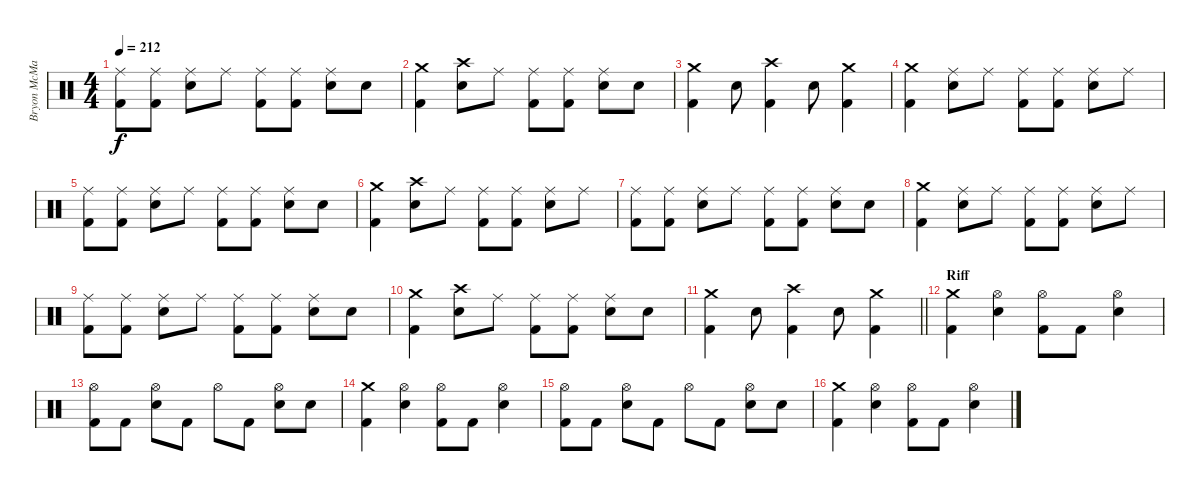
\track ("Bryon McMackin - Drums" "Bryon McMa") {instrument percussion}
\staff {score}
\articulation defaults
\ts (4 4)
\tempo 212
\clef neutral
\ks c
("Ride (middle)" "Kick (hit) 2").8{dy f} ("Ride (middle)" "Kick (hit) 2").8 ("Ride (middle)" "Electric Snare (hit)").8 "Ride (middle)".8 ("Ride (middle)" "Kick (hit) 2").8 ("Ride (middle)" "Kick (hit) 2").8 ("Ride (middle)" "Electric Snare (hit)").8 "Electric Snare (hit)".8 |
("Crash medium (hit)" "Kick (hit) 2").4 ("Crash high (hit)" "Electric Snare (hit)").8 "Ride (middle)".8 ("Ride (middle)" "Kick (hit) 2").8 ("Ride (middle)" "Kick (hit) 2").8 ("Ride (middle)" "Electric Snare (hit)").8 "Electric Snare (hit)".8 |
("Crash medium (hit)" "Kick (hit) 2").4 "Electric Snare (hit)".8 ("Crash high (hit)" "Kick (hit) 2").4 "Electric Snare (hit)".8 ("Crash medium (hit)" "Kick (hit) 2").4 |
("Crash medium (hit)" "Kick (hit) 2").4 ("Ride (middle)" "Electric Snare (hit)").8 "Ride (middle)".8 ("Ride (middle)" "Kick (hit) 2").8 ("Ride (middle)" "Kick (hit) 2").8 ("Ride (middle)" "Electric Snare (hit)").8 "Ride (middle)".8 |
("Ride (middle)" "Kick (hit) 2").8 ("Ride (middle)" "Kick (hit) 2").8 ("Ride (middle)" "Electric Snare (hit)").8 "Ride (middle)".8 ("Ride (middle)" "Kick (hit) 2").8 ("Ride (middle)" "Kick (hit) 2").8 ("Ride (middle)" "Electric Snare (hit)").8 "Electric Snare (hit)".8 |
("Crash medium (hit)" "Kick (hit) 2").4 ("Crash high (hit)" "Electric Snare (hit)").8 "Ride (middle)".8 ("Ride (middle)" "Kick (hit) 2").8 ("Ride (middle)" "Kick (hit) 2").8 ("Ride (middle)" "Electric Snare (hit)").8 "Ride (middle)".8 |
("Ride (middle)" "Kick (hit) 2").8 ("Ride (middle)" "Kick (hit) 2").8 ("Ride (middle)" "Electric Snare (hit)").8 "Ride (middle)".8 ("Ride (middle)" "Kick (hit) 2").8 ("Ride (middle)" "Kick (hit) 2").8 ("Ride (middle)" "Electric Snare (hit)").8 "Electric Snare (hit)".8 |
("Crash medium (hit)" "Kick (hit) 2").4 ("Ride (middle)" "Electric Snare (hit)").8 "Ride (middle)".8 ("Ride (middle)" "Kick (hit) 2").8 ("Ride (middle)" "Kick (hit) 2").8 ("Ride (middle)" "Electric Snare (hit)").8 "Ride (middle)".8 |
("Ride (middle)" "Kick (hit) 2").8 ("Ride (middle)" "Kick (hit) 2").8 ("Ride (middle)" "Electric Snare (hit)").8 "Ride (middle)".8 ("Ride (middle)" "Kick (hit) 2").8 ("Ride (middle)" "Kick (hit) 2").8 ("Ride (middle)" "Electric Snare (hit)").8 "Electric Snare (hit)".8 |
("Crash medium (hit)" "Kick (hit) 2").4 ("Crash high (hit)" "Electric Snare (hit)").8 "Ride (middle)".8 ("Ride (middle)" "Kick (hit) 2").8 ("Ride (middle)" "Kick (hit) 2").8 ("Ride (middle)" "Electric Snare (hit)").8 "Electric Snare (hit)".8 |
\barLineRight lightlight
("Crash medium (hit)" "Kick (hit) 2").4 "Electric Snare (hit)".8 ("Crash high (hit)" "Kick (hit) 2").4 "Electric Snare (hit)".8 ("Crash medium (hit)" "Kick (hit) 2").4 |
\section ("" "Riff")
("Crash medium (hit)" "Kick (hit) 2").4 ("Hi-Hat (open)" "Electric Snare (hit)").4 ("Hi-Hat (open)" "Kick (hit) 2").8 "Kick (hit) 2".8 ("Hi-Hat (open)" "Electric Snare (hit)").4 |
("Hi-Hat (open)" "Kick (hit) 2").8 "Kick (hit) 2".8 ("Hi-Hat (open)" "Electric Snare (hit)").8 "Kick (hit) 2".8 "Hi-Hat (open)".8 "Kick (hit) 2".8 ("Hi-Hat (open)" "Electric Snare (hit)").8 "Electric Snare (hit)".8 |
("Crash medium (hit)" "Kick (hit) 2").4 ("Hi-Hat (open)" "Electric Snare (hit)").4 ("Hi-Hat (open)" "Kick (hit) 2").8 "Kick (hit) 2".8 ("Hi-Hat (open)" "Electric Snare (hit)").4 |
("Hi-Hat (open)" "Kick (hit) 2").8 "Kick (hit) 2".8 ("Hi-Hat (open)" "Electric Snare (hit)").8 "Kick (hit) 2".8 "Hi-Hat (open)".8 "Kick (hit) 2".8 ("Hi-Hat (open)" "Electric Snare (hit)").8 "Electric Snare (hit)".8 |
("Crash medium (hit)" "Kick (hit) 2").4 ("Hi-Hat (open)" "Electric Snare (hit)").4 ("Hi-Hat (open)" "Kick (hit) 2").8 "Kick (hit) 2".8 ("Hi-Hat (open)" "Electric Snare (hit)").4
